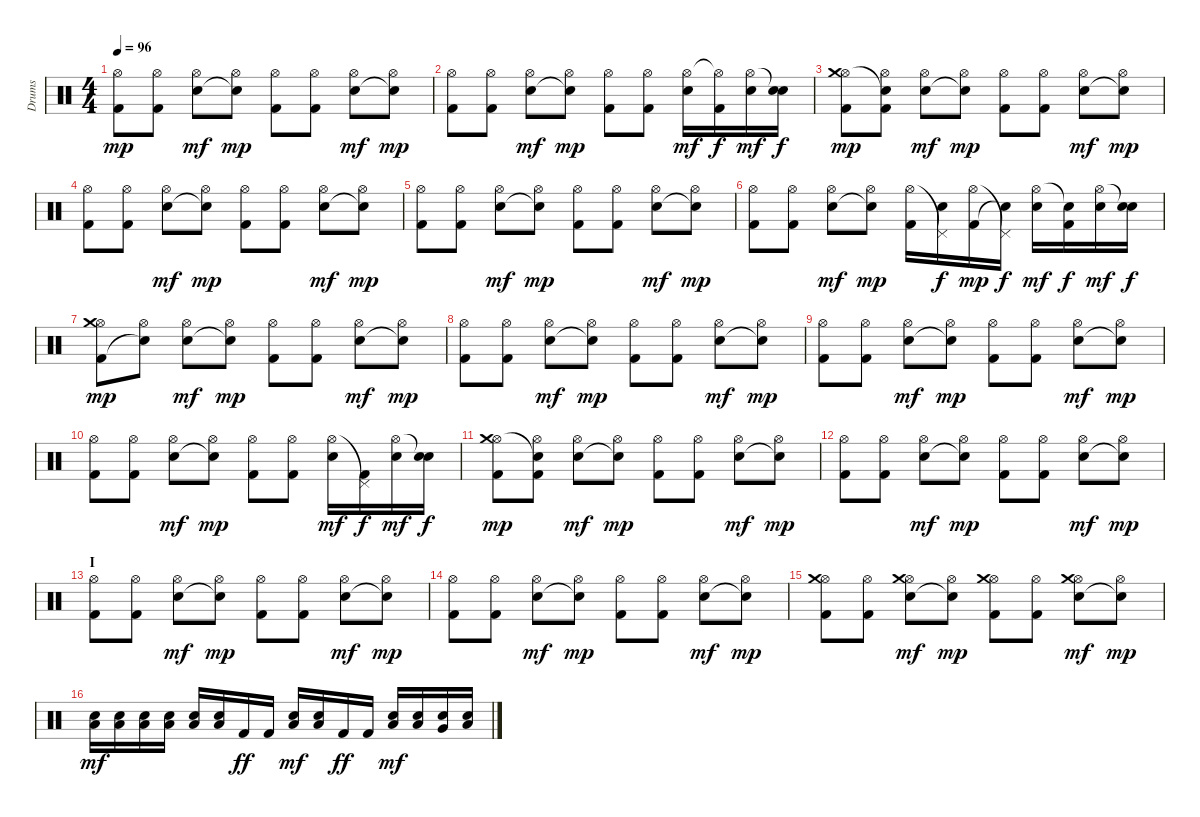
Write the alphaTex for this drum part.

\track ("Drums" "Drums") {instrument percussion}
\staff {score}
\articulation defaults
\ts (4 4)
\tempo 96
\clef neutral
\ks c
("Hi-Hat (open)" "Kick (hit) 2").8{dy mp} ("Hi-Hat (open)" "Kick (hit) 2").8 ("Hi-Hat (open)" "Electric Snare (hit)").8{dy mf} ("Hi-Hat (open)" "Snare (hit)"{t}).8{dy mp} ("Hi-Hat (open)" "Kick (hit) 2").8 ("Hi-Hat (open)" "Kick (hit) 2").8 ("Hi-Hat (open)" "Electric Snare (hit)").8{dy mf} ("Hi-Hat (open)" "Snare (hit)"{t}).8{dy mp} |
("Hi-Hat (open)" "Kick (hit) 2").8 ("Hi-Hat (open)" "Kick (hit) 2").8 ("Hi-Hat (open)" "Electric Snare (hit)").8{dy mf} ("Hi-Hat (open)" "Snare (hit)"{t}).8{dy mp} ("Hi-Hat (open)" "Kick (hit) 2").8 ("Hi-Hat (open)" "Kick (hit) 2").8 ("Hi-Hat (open)" "Electric Snare (hit)").16{dy mf} ("Hi-Hat (open)"{t} "Kick (hit) 2").16{dy f} ("Hi-Hat (open)" "Electric Snare (hit)").16{dy mf} ("Snare (hit)"{t} "Electric Snare (hit)").16{dy f} |
("Hi-Hat (open)" "Kick (hit) 2" "Crash medium (hit)").8{dy mp} ("Hi-Hat (open)" "Kick (hit) 2" "Snare (hit)"{t}).8 ("Hi-Hat (open)" "Electric Snare (hit)").8{dy mf} ("Hi-Hat (open)" "Snare (hit)"{t}).8{dy mp} ("Hi-Hat (open)" "Kick (hit) 2").8 ("Hi-Hat (open)" "Kick (hit) 2").8 ("Hi-Hat (open)" "Electric Snare (hit)").8{dy mf} ("Hi-Hat (open)" "Snare (hit)"{t}).8{dy mp} |
("Hi-Hat (open)" "Kick (hit) 2").8 ("Hi-Hat (open)" "Kick (hit) 2").8 ("Hi-Hat (open)" "Electric Snare (hit)").8{dy mf} ("Hi-Hat (open)" "Snare (hit)"{t}).8{dy mp} ("Hi-Hat (open)" "Kick (hit) 2").8 ("Hi-Hat (open)" "Kick (hit) 2").8 ("Hi-Hat (open)" "Electric Snare (hit)").8{dy mf} ("Hi-Hat (open)" "Snare (hit)"{t}).8{dy mp} |
("Hi-Hat (open)" "Kick (hit) 2").8 ("Hi-Hat (open)" "Kick (hit) 2").8 ("Hi-Hat (open)" "Electric Snare (hit)").8{dy mf} ("Hi-Hat (open)" "Snare (hit)"{t}).8{dy mp} ("Hi-Hat (open)" "Kick (hit) 2").8 ("Hi-Hat (open)" "Kick (hit) 2").8 ("Hi-Hat (open)" "Electric Snare (hit)").8{dy mf} ("Hi-Hat (open)" "Snare (hit)"{t}).8{dy mp} |
("Hi-Hat (open)" "Kick (hit) 2").8 ("Hi-Hat (open)" "Kick (hit) 2").8 ("Hi-Hat (open)" "Electric Snare (hit)").8{dy mf} ("Hi-Hat (open)" "Snare (hit)"{t}).8{dy mp} ("Hi-Hat (open)" "Kick (hit) 2").16 ("Pedal Hi-Hat (hit)"{t} "Electric Snare (hit)").16{dy f} ("Hi-Hat (open)" "Kick (hit) 2").16{dy mp} ("Pedal Hi-Hat (hit)"{t} "Snare (hit)"{t}).16{dy f} ("Hi-Hat (open)" "Electric Snare (hit)").16{dy mf} ("Snare (hit)"{t} "Kick (hit) 2").16{dy f} ("Hi-Hat (open)" "Electric Snare (hit)").16{dy mf} ("Snare (hit)"{t} "Electric Snare (hit)").16{dy f} |
("Hi-Hat (open)" "Kick (hit) 2" "Crash medium (hit)").8{dy mp} ("Hi-Hat (open)" "Snare (hit)"{t}).8 ("Hi-Hat (open)" "Electric Snare (hit)").8{dy mf} ("Hi-Hat (open)" "Snare (hit)"{t}).8{dy mp} ("Hi-Hat (open)" "Kick (hit) 2").8 ("Hi-Hat (open)" "Kick (hit) 2").8 ("Hi-Hat (open)" "Electric Snare (hit)").8{dy mf} ("Hi-Hat (open)" "Snare (hit)"{t}).8{dy mp} |
("Hi-Hat (open)" "Kick (hit) 2").8 ("Hi-Hat (open)" "Kick (hit) 2").8 ("Hi-Hat (open)" "Electric Snare (hit)").8{dy mf} ("Hi-Hat (open)" "Snare (hit)"{t}).8{dy mp} ("Hi-Hat (open)" "Kick (hit) 2").8 ("Hi-Hat (open)" "Kick (hit) 2").8 ("Hi-Hat (open)" "Electric Snare (hit)").8{dy mf} ("Hi-Hat (open)" "Snare (hit)"{t}).8{dy mp} |
("Hi-Hat (open)" "Kick (hit) 2").8 ("Hi-Hat (open)" "Kick (hit) 2").8 ("Hi-Hat (open)" "Electric Snare (hit)").8{dy mf} ("Hi-Hat (open)" "Snare (hit)"{t}).8{dy mp} ("Hi-Hat (open)" "Kick (hit) 2").8 ("Hi-Hat (open)" "Kick (hit) 2").8 ("Hi-Hat (open)" "Electric Snare (hit)").8{dy mf} ("Hi-Hat (open)" "Snare (hit)"{t}).8{dy mp} |
("Hi-Hat (open)" "Kick (hit) 2").8 ("Hi-Hat (open)" "Kick (hit) 2").8 ("Hi-Hat (open)" "Electric Snare (hit)").8{dy mf} ("Hi-Hat (open)" "Snare (hit)"{t}).8{dy mp} ("Hi-Hat (open)" "Kick (hit) 2").8 ("Hi-Hat (open)" "Kick (hit) 2").8 ("Hi-Hat (open)" "Electric Snare (hit)").16{dy mf} ("Pedal Hi-Hat (hit)"{t} "Kick (hit) 2").16{dy f} ("Hi-Hat (open)" "Electric Snare (hit)").16{dy mf} ("Snare (hit)"{t} "Electric Snare (hit)").16{dy f} |
("Hi-Hat (open)" "Kick (hit) 2" "Crash medium (hit)").8{dy mp} ("Hi-Hat (open)" "Kick (hit) 2" "Snare (hit)"{t}).8 ("Hi-Hat (open)" "Electric Snare (hit)").8{dy mf} ("Hi-Hat (open)" "Snare (hit)"{t}).8{dy mp} ("Hi-Hat (open)" "Kick (hit) 2").8 ("Hi-Hat (open)" "Kick (hit) 2").8 ("Hi-Hat (open)" "Electric Snare (hit)").8{dy mf} ("Hi-Hat (open)" "Snare (hit)"{t}).8{dy mp} |
("Hi-Hat (open)" "Kick (hit) 2").8 ("Hi-Hat (open)" "Kick (hit) 2").8 ("Hi-Hat (open)" "Electric Snare (hit)").8{dy mf} ("Hi-Hat (open)" "Snare (hit)"{t}).8{dy mp} ("Hi-Hat (open)" "Kick (hit) 2").8 ("Hi-Hat (open)" "Kick (hit) 2").8 ("Hi-Hat (open)" "Electric Snare (hit)").8{dy mf} ("Hi-Hat (open)" "Snare (hit)"{t}).8{dy mp} |
\section ("" "I")
("Hi-Hat (open)" "Kick (hit) 2").8 ("Hi-Hat (open)" "Kick (hit) 2").8 ("Hi-Hat (open)" "Electric Snare (hit)").8{dy mf} ("Hi-Hat (open)" "Snare (hit)"{t}).8{dy mp} ("Hi-Hat (open)" "Kick (hit) 2").8 ("Hi-Hat (open)" "Kick (hit) 2").8 ("Hi-Hat (open)" "Electric Snare (hit)").8{dy mf} ("Hi-Hat (open)" "Snare (hit)"{t}).8{dy mp} |
("Hi-Hat (open)" "Kick (hit) 2").8 ("Hi-Hat (open)" "Kick (hit) 2").8 ("Hi-Hat (open)" "Electric Snare (hit)").8{dy mf} ("Hi-Hat (open)" "Snare (hit)"{t}).8{dy mp} ("Hi-Hat (open)" "Kick (hit) 2").8 ("Hi-Hat (open)" "Kick (hit) 2").8 ("Hi-Hat (open)" "Electric Snare (hit)").8{dy mf} ("Hi-Hat (open)" "Snare (hit)"{t}).8{dy mp} |
("Hi-Hat (open)" "Kick (hit) 2" "Crash medium (hit)").8 ("Hi-Hat (open)" "Kick (hit) 2").8 ("Hi-Hat (open)" "Electric Snare (hit)" "Crash medium (hit)").8{dy mf} ("Hi-Hat (open)" "Snare (hit)"{t}).8{dy mp} ("Hi-Hat (open)" "Kick (hit) 2" "Crash medium (hit)").8 ("Hi-Hat (open)" "Kick (hit) 2").8 ("Hi-Hat (open)" "Electric Snare (hit)" "Crash medium (hit)").8{dy mf} ("Hi-Hat (open)" "Snare (hit)"{t}).8{dy mp} |
("Electric Snare (hit)" "Low Tom (hit)").16{dy mf} ("Electric Snare (hit)" "Low Tom (hit)").16 ("Electric Snare (hit)" "Low Tom (hit)").16 ("Electric Snare (hit)" "Low Tom (hit)").16 ("Electric Snare (hit)" "Low Tom (hit)").16 ("Electric Snare (hit)" "Low Tom (hit)").16 "Kick (hit) 2".16{dy ff} "Kick (hit) 2".16 ("Electric Snare (hit)" "Low Tom (hit)").16{dy mf} ("Electric Snare (hit)" "Low Tom (hit)").16 "Kick (hit) 2".16{dy ff} "Kick (hit) 2".16 ("Electric Snare (hit)" "Low Tom (hit)").16{dy mf} ("Electric Snare (hit)" "Low Tom (hit)").16 ("Electric Snare (hit)" "Very Low Tom (hit)").16 ("Electric Snare (hit)" "Low Floor Tom (hit)").16
